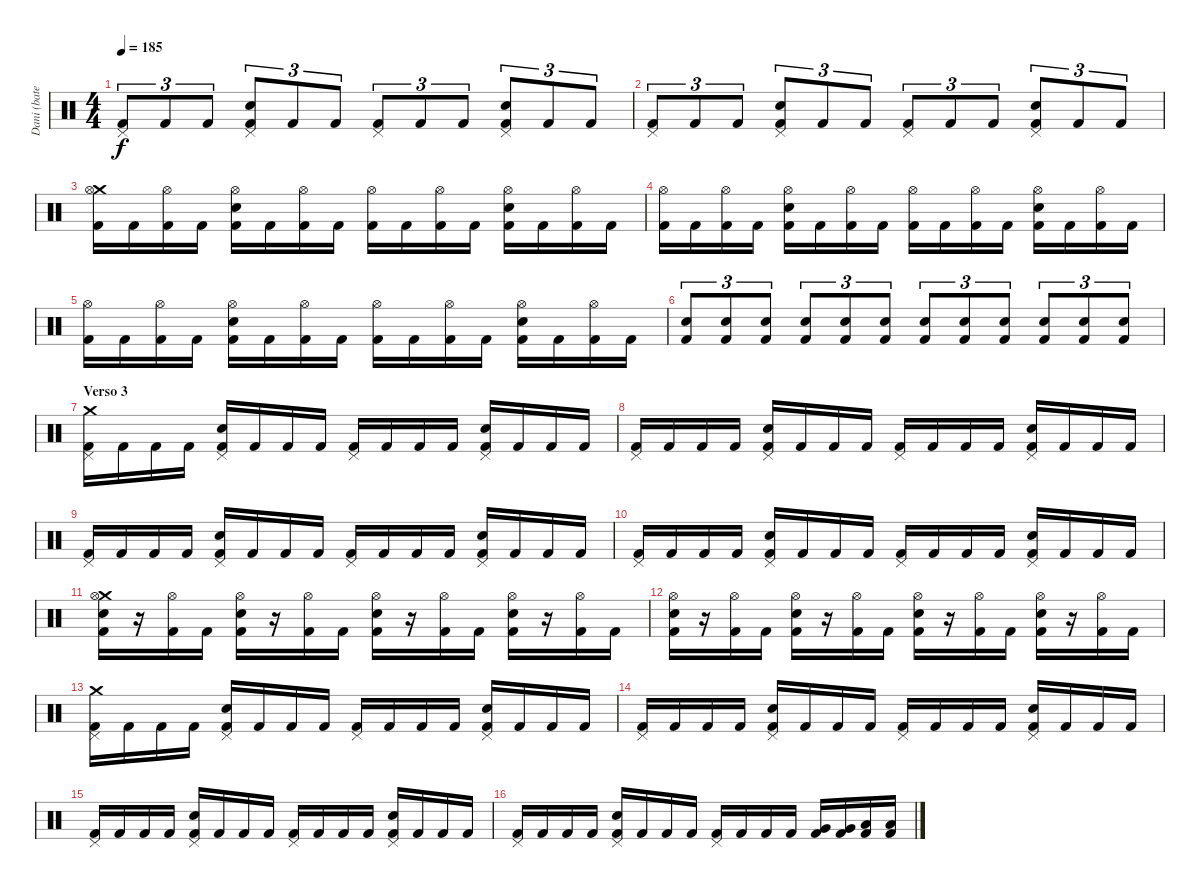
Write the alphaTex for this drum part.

\track ("Dani (batería)" "Dani (bate") {instrument percussion}
\staff {score}
\articulation defaults
\ts (4 4)
\tempo 185
\clef neutral
\ks c
("Pedal Hi-Hat (hit)" "Kick (hit) 2").8{tu (3 2) dy f} "Kick (hit) 2".8{tu (3 2)} "Kick (hit) 2".8{tu (3 2)} ("Pedal Hi-Hat (hit)" "Snare (hit) 2" "Kick (hit) 2").8{tu (3 2)} "Kick (hit) 2".8{tu (3 2)} "Kick (hit) 2".8{tu (3 2)} ("Pedal Hi-Hat (hit)" "Kick (hit) 2").8{tu (3 2)} "Kick (hit) 2".8{tu (3 2)} "Kick (hit) 2".8{tu (3 2)} ("Pedal Hi-Hat (hit)" "Snare (hit) 2" "Kick (hit) 2").8{tu (3 2)} "Kick (hit) 2".8{tu (3 2)} "Kick (hit) 2".8{tu (3 2)} |
("Pedal Hi-Hat (hit)" "Kick (hit) 2").8{tu (3 2)} "Kick (hit) 2".8{tu (3 2)} "Kick (hit) 2".8{tu (3 2)} ("Pedal Hi-Hat (hit)" "Snare (hit) 2" "Kick (hit) 2").8{tu (3 2)} "Kick (hit) 2".8{tu (3 2)} "Kick (hit) 2".8{tu (3 2)} ("Pedal Hi-Hat (hit)" "Kick (hit) 2").8{tu (3 2)} "Kick (hit) 2".8{tu (3 2)} "Kick (hit) 2".8{tu (3 2)} ("Pedal Hi-Hat (hit)" "Snare (hit) 2" "Kick (hit) 2").8{tu (3 2)} "Kick (hit) 2".8{tu (3 2)} "Kick (hit) 2".8{tu (3 2)} |
("Crash medium (hit)" "Hi-Hat (open)" "Kick (hit) 2").16 "Kick (hit) 2".16 ("Hi-Hat (open)" "Kick (hit) 2").16 "Kick (hit) 2".16 ("Hi-Hat (open)" "Snare (hit) 2" "Kick (hit) 2").16 "Kick (hit) 2".16 ("Hi-Hat (open)" "Kick (hit) 2").16 "Kick (hit) 2".16 ("Hi-Hat (open)" "Kick (hit) 2").16 "Kick (hit) 2".16 ("Hi-Hat (open)" "Kick (hit) 2").16 "Kick (hit) 2".16 ("Hi-Hat (open)" "Snare (hit) 2" "Kick (hit) 2").16 "Kick (hit) 2".16 ("Hi-Hat (open)" "Kick (hit) 2").16 "Kick (hit) 2".16 |
("Hi-Hat (open)" "Kick (hit) 2").16 "Kick (hit) 2".16 ("Hi-Hat (open)" "Kick (hit) 2").16 "Kick (hit) 2".16 ("Hi-Hat (open)" "Snare (hit) 2" "Kick (hit) 2").16 "Kick (hit) 2".16 ("Hi-Hat (open)" "Kick (hit) 2").16 "Kick (hit) 2".16 ("Hi-Hat (open)" "Kick (hit) 2").16 "Kick (hit) 2".16 ("Hi-Hat (open)" "Kick (hit) 2").16 "Kick (hit) 2".16 ("Hi-Hat (open)" "Snare (hit) 2" "Kick (hit) 2").16 "Kick (hit) 2".16 ("Hi-Hat (open)" "Kick (hit) 2").16 "Kick (hit) 2".16 |
("Hi-Hat (open)" "Kick (hit) 2").16 "Kick (hit) 2".16 ("Hi-Hat (open)" "Kick (hit) 2").16 "Kick (hit) 2".16 ("Hi-Hat (open)" "Snare (hit) 2" "Kick (hit) 2").16 "Kick (hit) 2".16 ("Hi-Hat (open)" "Kick (hit) 2").16 "Kick (hit) 2".16 ("Hi-Hat (open)" "Kick (hit) 2").16 "Kick (hit) 2".16 ("Hi-Hat (open)" "Kick (hit) 2").16 "Kick (hit) 2".16 ("Hi-Hat (open)" "Snare (hit) 2" "Kick (hit) 2").16 "Kick (hit) 2".16 ("Hi-Hat (open)" "Kick (hit) 2").16 "Kick (hit) 2".16 |
("Snare (hit) 2" "Kick (hit) 2").8{tu (3 2)} ("Snare (hit) 2" "Kick (hit) 2").8{tu (3 2)} ("Snare (hit) 2" "Kick (hit) 2").8{tu (3 2)} ("Snare (hit) 2" "Kick (hit) 2").8{tu (3 2)} ("Snare (hit) 2" "Kick (hit) 2").8{tu (3 2)} ("Snare (hit) 2" "Kick (hit) 2").8{tu (3 2)} ("Snare (hit) 2" "Kick (hit) 2").8{tu (3 2)} ("Snare (hit) 2" "Kick (hit) 2").8{tu (3 2)} ("Snare (hit) 2" "Kick (hit) 2").8{tu (3 2)} ("Snare (hit) 2" "Kick (hit) 2").8{tu (3 2)} ("Snare (hit) 2" "Kick (hit) 2").8{tu (3 2)} ("Snare (hit) 2" "Kick (hit) 2").8{tu (3 2)} |
\section ("" "Verso 3")
("Crash medium (hit)" "Pedal Hi-Hat (hit)" "Kick (hit) 2").16 "Kick (hit) 2".16 "Kick (hit) 2".16 "Kick (hit) 2".16 ("Pedal Hi-Hat (hit)" "Snare (hit) 2" "Kick (hit) 2").16 "Kick (hit) 2".16 "Kick (hit) 2".16 "Kick (hit) 2".16 ("Pedal Hi-Hat (hit)" "Kick (hit) 2").16 "Kick (hit) 2".16 "Kick (hit) 2".16 "Kick (hit) 2".16 ("Pedal Hi-Hat (hit)" "Snare (hit) 2" "Kick (hit) 2").16 "Kick (hit) 2".16 "Kick (hit) 2".16 "Kick (hit) 2".16 |
("Pedal Hi-Hat (hit)" "Kick (hit) 2").16 "Kick (hit) 2".16 "Kick (hit) 2".16 "Kick (hit) 2".16 ("Pedal Hi-Hat (hit)" "Snare (hit) 2" "Kick (hit) 2").16 "Kick (hit) 2".16 "Kick (hit) 2".16 "Kick (hit) 2".16 ("Pedal Hi-Hat (hit)" "Kick (hit) 2").16 "Kick (hit) 2".16 "Kick (hit) 2".16 "Kick (hit) 2".16 ("Pedal Hi-Hat (hit)" "Snare (hit) 2" "Kick (hit) 2").16 "Kick (hit) 2".16 "Kick (hit) 2".16 "Kick (hit) 2".16 |
("Pedal Hi-Hat (hit)" "Kick (hit) 2").16 "Kick (hit) 2".16 "Kick (hit) 2".16 "Kick (hit) 2".16 ("Pedal Hi-Hat (hit)" "Snare (hit) 2" "Kick (hit) 2").16 "Kick (hit) 2".16 "Kick (hit) 2".16 "Kick (hit) 2".16 ("Pedal Hi-Hat (hit)" "Kick (hit) 2").16 "Kick (hit) 2".16 "Kick (hit) 2".16 "Kick (hit) 2".16 ("Pedal Hi-Hat (hit)" "Snare (hit) 2" "Kick (hit) 2").16 "Kick (hit) 2".16 "Kick (hit) 2".16 "Kick (hit) 2".16 |
("Pedal Hi-Hat (hit)" "Kick (hit) 2").16 "Kick (hit) 2".16 "Kick (hit) 2".16 "Kick (hit) 2".16 ("Pedal Hi-Hat (hit)" "Snare (hit) 2" "Kick (hit) 2").16 "Kick (hit) 2".16 "Kick (hit) 2".16 "Kick (hit) 2".16 ("Pedal Hi-Hat (hit)" "Kick (hit) 2").16 "Kick (hit) 2".16 "Kick (hit) 2".16 "Kick (hit) 2".16 ("Pedal Hi-Hat (hit)" "Snare (hit) 2" "Kick (hit) 2").16 "Kick (hit) 2".16 "Kick (hit) 2".16 "Kick (hit) 2".16 |
("Crash medium (hit)" "Hi-Hat (open)" "Snare (hit) 2" "Kick (hit) 2").16 r.16 ("Hi-Hat (open)" "Kick (hit) 2").16 "Kick (hit) 2".16 ("Hi-Hat (open)" "Snare (hit) 2" "Kick (hit) 2").16 r.16 ("Hi-Hat (open)" "Kick (hit) 2").16 "Kick (hit) 2".16 ("Hi-Hat (open)" "Snare (hit) 2" "Kick (hit) 2").16 r.16 ("Hi-Hat (open)" "Kick (hit) 2").16 "Kick (hit) 2".16 ("Hi-Hat (open)" "Snare (hit) 2" "Kick (hit) 2").16 r.16 ("Hi-Hat (open)" "Kick (hit) 2").16 "Kick (hit) 2".16 |
("Hi-Hat (open)" "Snare (hit) 2" "Kick (hit) 2").16 r.16 ("Hi-Hat (open)" "Kick (hit) 2").16 "Kick (hit) 2".16 ("Hi-Hat (open)" "Snare (hit) 2" "Kick (hit) 2").16 r.16 ("Hi-Hat (open)" "Kick (hit) 2").16 "Kick (hit) 2".16 ("Hi-Hat (open)" "Snare (hit) 2" "Kick (hit) 2").16 r.16 ("Hi-Hat (open)" "Kick (hit) 2").16 "Kick (hit) 2".16 ("Hi-Hat (open)" "Snare (hit) 2" "Kick (hit) 2").16 r.16 ("Hi-Hat (open)" "Kick (hit) 2").16 "Kick (hit) 2".16 |
("Crash medium (hit)" "Pedal Hi-Hat (hit)" "Kick (hit) 2").16 "Kick (hit) 2".16 "Kick (hit) 2".16 "Kick (hit) 2".16 ("Pedal Hi-Hat (hit)" "Snare (hit) 2" "Kick (hit) 2").16 "Kick (hit) 2".16 "Kick (hit) 2".16 "Kick (hit) 2".16 ("Pedal Hi-Hat (hit)" "Kick (hit) 2").16 "Kick (hit) 2".16 "Kick (hit) 2".16 "Kick (hit) 2".16 ("Pedal Hi-Hat (hit)" "Snare (hit) 2" "Kick (hit) 2").16 "Kick (hit) 2".16 "Kick (hit) 2".16 "Kick (hit) 2".16 |
("Pedal Hi-Hat (hit)" "Kick (hit) 2").16 "Kick (hit) 2".16 "Kick (hit) 2".16 "Kick (hit) 2".16 ("Pedal Hi-Hat (hit)" "Snare (hit) 2" "Kick (hit) 2").16 "Kick (hit) 2".16 "Kick (hit) 2".16 "Kick (hit) 2".16 ("Pedal Hi-Hat (hit)" "Kick (hit) 2").16 "Kick (hit) 2".16 "Kick (hit) 2".16 "Kick (hit) 2".16 ("Pedal Hi-Hat (hit)" "Snare (hit) 2" "Kick (hit) 2").16 "Kick (hit) 2".16 "Kick (hit) 2".16 "Kick (hit) 2".16 |
("Pedal Hi-Hat (hit)" "Kick (hit) 2").16 "Kick (hit) 2".16 "Kick (hit) 2".16 "Kick (hit) 2".16 ("Pedal Hi-Hat (hit)" "Snare (hit) 2" "Kick (hit) 2").16 "Kick (hit) 2".16 "Kick (hit) 2".16 "Kick (hit) 2".16 ("Pedal Hi-Hat (hit)" "Kick (hit) 2").16 "Kick (hit) 2".16 "Kick (hit) 2".16 "Kick (hit) 2".16 ("Pedal Hi-Hat (hit)" "Snare (hit) 2" "Kick (hit) 2").16 "Kick (hit) 2".16 "Kick (hit) 2".16 "Kick (hit) 2".16 |
("Pedal Hi-Hat (hit)" "Kick (hit) 2").16 "Kick (hit) 2".16 "Kick (hit) 2".16 "Kick (hit) 2".16 ("Pedal Hi-Hat (hit)" "Snare (hit) 2" "Kick (hit) 2").16 "Kick (hit) 2".16 "Kick (hit) 2".16 "Kick (hit) 2".16 ("Pedal Hi-Hat (hit)" "Kick (hit) 2").16 "Kick (hit) 2".16 "Kick (hit) 2".16 "Kick (hit) 2".16 ("Very Low Tom (hit)" "Kick (hit) 2").16 ("Very Low Tom (hit)" "Kick (hit) 2").16 ("Low Floor Tom (hit)" "Kick (hit) 2").16 ("Low Floor Tom (hit)" "Kick (hit) 2").16
